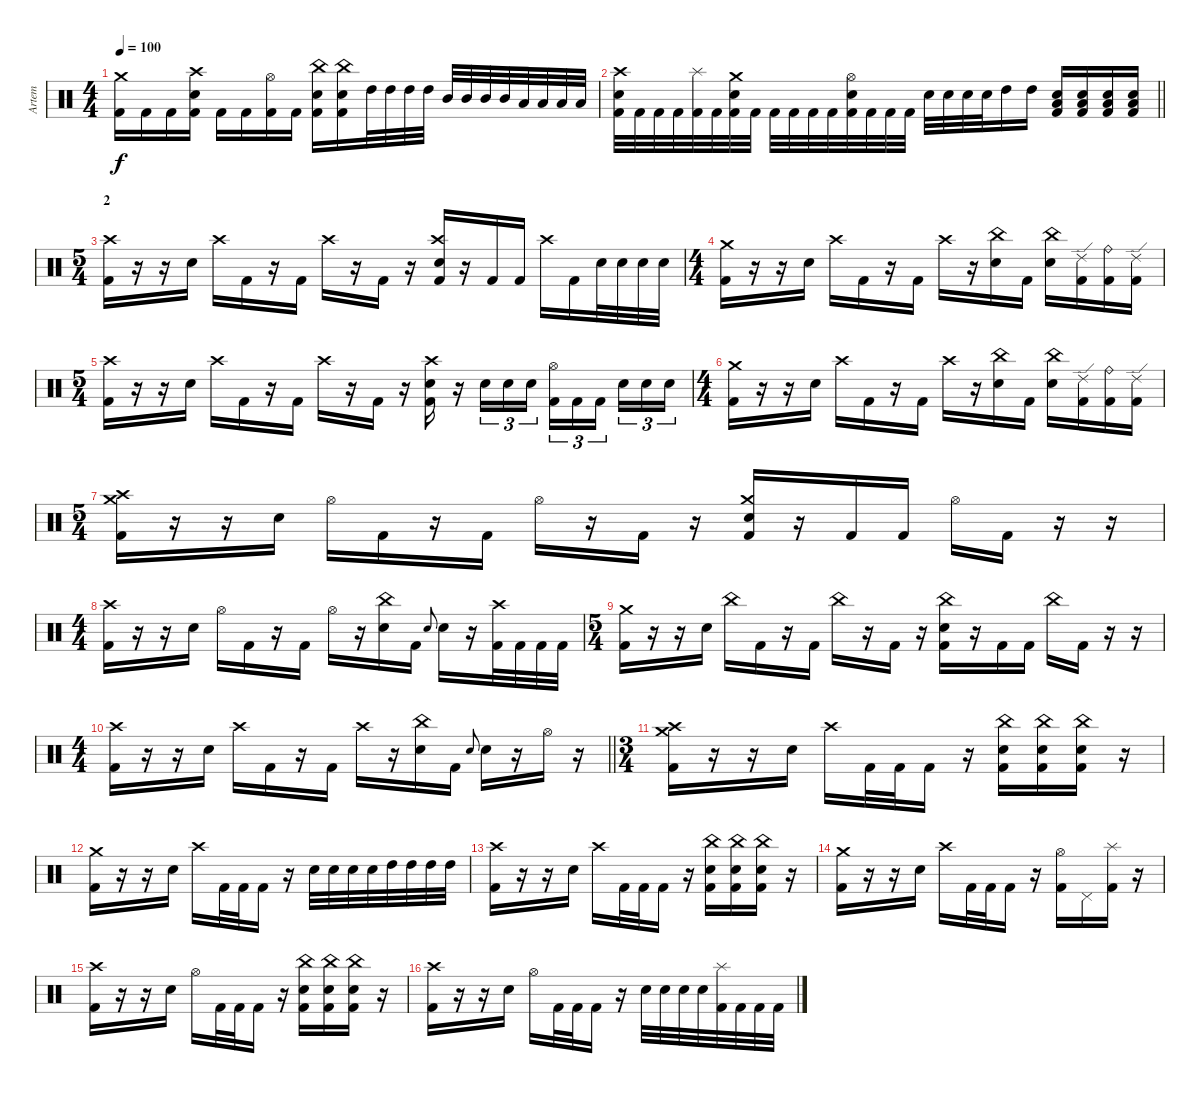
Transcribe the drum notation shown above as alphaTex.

\track ("Artem" "Artem") {instrument percussion}
\staff {score}
\articulation defaults
\ts (4 4)
\tempo 100
\clef neutral
\ks c
("Kick (hit) 2" "Crash medium (hit)").16{dy f} "Kick (hit) 2".16 "Kick (hit) 2".16 ("Kick (hit) 2" "Electric Snare (hit)" "Crash high (hit)").16 "Kick (hit) 2".16 "Kick (hit) 2".16 ("Kick (hit) 2" "Hi-Hat (open)").16 "Kick (hit) 2".16 ("Kick (hit) 2" "Electric Snare (hit)" "China (hit)").16 ("Kick (hit) 2" "Electric Snare (hit)" "China (hit)").16 "High Tom (hit)".32 "High Tom (hit)".32 "High Tom (hit)".32 "High Tom (hit)".32 "Mid Tom (hit)".32 "Mid Tom (hit)".32 "Mid Tom (hit)".32 "Mid Tom (hit)".32 "Low Floor Tom (hit)".32 "Low Floor Tom (hit)".32 "Low Floor Tom (hit)".32 "Low Floor Tom (hit)".32 |
\barLineRight lightlight
("Kick (hit) 2" "Electric Snare (hit)" "Crash high (hit)").32 "Kick (hit) 2".32 "Kick (hit) 2".32 "Kick (hit) 2".32 ("Kick (hit) 2" "Splash (hit)").32 "Kick (hit) 2".32 ("Kick (hit) 2" "Electric Snare (hit)" "Crash medium (hit)").32 "Kick (hit) 2".32 "Kick (hit) 2".32 "Kick (hit) 2".32 "Kick (hit) 2".32 "Kick (hit) 2".32 ("Kick (hit) 2" "Electric Snare (hit)" "Hi-Hat (open)").32 "Kick (hit) 2".32 "Kick (hit) 2".32 "Kick (hit) 2".32 "Electric Snare (hit)".32 "Electric Snare (hit)".32 "Electric Snare (hit)".32 "Electric Snare (hit)".32 "High Tom (hit)".16 "High Tom (hit)".16 ("Kick (hit) 2" "Electric Snare (hit)" "Low Floor Tom (hit)").16 ("Kick (hit) 2" "Electric Snare (hit)" "Low Floor Tom (hit)").16 ("Kick (hit) 2" "Electric Snare (hit)" "Low Floor Tom (hit)").16 ("Kick (hit) 2" "Electric Snare (hit)" "Low Floor Tom (hit)").16 |
\ts (5 4)
\section ("" "2")
("Crash high (hit)" "Kick (hit) 2").16 r.16 r.16 "Electric Snare (hit)".16 "Crash high (hit)".16 "Kick (hit) 2".16 r.16 "Kick (hit) 2".16 "Crash high (hit)".16 r.16 "Kick (hit) 2".16 r.16 ("Crash high (hit)" "Kick (hit) 2" "Snare (hit) 2").16 r.16 "Kick (hit) 2".16 "Kick (hit) 2".16 "Crash high (hit)".16 "Kick (hit) 2".16 "Electric Snare (hit)".32 "Electric Snare (hit)".32 "Electric Snare (hit)".32 "Electric Snare (hit)".32 |
\ts (4 4)
("Crash medium (hit)" "Kick (hit) 2").16 r.16 r.16 "Electric Snare (hit)".16 "Crash high (hit)".16 "Kick (hit) 2".16 r.16 "Kick (hit) 2".16 "Crash high (hit)".16 r.16 ("Electric Snare (hit)" "China (hit)").16 "Kick (hit) 2".16 ("China (hit)" "Electric Snare (hit)").16 ("Kick (hit) 2" "Ride (edge) 2").16 ("Kick (hit) 2" "Ride (bell)").16 ("Kick (hit) 2" "Ride (edge) 2").16 |
\ts (5 4)
("Crash high (hit)" "Kick (hit) 2").16 r.16 r.16 "Electric Snare (hit)".16 "Crash high (hit)".16 "Kick (hit) 2".16 r.16 "Kick (hit) 2".16 "Crash high (hit)".16 r.16 "Kick (hit) 2".16 r.16 ("Crash high (hit)" "Kick (hit) 2" "Electric Snare (hit)").16 r.16 "Electric Snare (hit)".16{tu (3 2)} "Electric Snare (hit)".16{tu (3 2)} "Electric Snare (hit)".16{tu (3 2)} ("Kick (hit) 2" "Hi-Hat (open)").16{tu (3 2)} "Kick (hit) 2".16{tu (3 2)} "Kick (hit) 2".16{tu (3 2) beam splitsecondary} "Electric Snare (hit)".16{tu (3 2)} "Electric Snare (hit)".16{tu (3 2)} "Electric Snare (hit)".16{tu (3 2)} |
\ts (4 4)
("Crash medium (hit)" "Kick (hit) 2").16 r.16 r.16 "Electric Snare (hit)".16 "Crash high (hit)".16 "Kick (hit) 2".16 r.16 "Kick (hit) 2".16 "Crash high (hit)".16 r.16 ("Electric Snare (hit)" "China (hit)").16 "Kick (hit) 2".16 ("China (hit)" "Electric Snare (hit)").16 ("Kick (hit) 2" "Ride (edge) 2").16 ("Kick (hit) 2" "Ride (bell)").16 ("Kick (hit) 2" "Ride (edge) 2").16 |
\ts (5 4)
("Crash high (hit)" "Kick (hit) 2" "Crash medium (hit)").16 r.16 r.16 "Electric Snare (hit)".16 "Hi-Hat (open)".16 "Kick (hit) 2".16 r.16 "Kick (hit) 2".16 "Hi-Hat (open)".16 r.16 "Kick (hit) 2".16 r.16 ("Crash medium (hit)" "Kick (hit) 2" "Electric Snare (hit)").16 r.16 "Kick (hit) 2".16 "Kick (hit) 2".16 "Hi-Hat (open)".16 "Kick (hit) 2".16 r.16 r.16 |
\ts (4 4)
("Crash high (hit)" "Kick (hit) 2").16 r.16 r.16 "Electric Snare (hit)".16 "Hi-Hat (open)".16 "Kick (hit) 2".16 r.16 "Kick (hit) 2".16 "Hi-Hat (open)".16 r.16 ("Electric Snare (hit)" "China (hit)").16 "Kick (hit) 2".16 "Electric Snare (hit)".8{gr onbeat} "Electric Snare (hit)".16 r.16 ("Kick (hit) 2" "Crash high (hit)").32 "Kick (hit) 2".32 "Kick (hit) 2".32 "Kick (hit) 2".32 |
\ts (5 4)
("Crash medium (hit)" "Kick (hit) 2").16 r.16 r.16 "Electric Snare (hit)".16 "China (hit)".16 "Kick (hit) 2".16 r.16 "Kick (hit) 2".16 "China (hit)".16 r.16 "Kick (hit) 2".16 r.16 ("China (hit)" "Kick (hit) 2" "Electric Snare (hit)").16 r.16 "Kick (hit) 2".16 "Kick (hit) 2".16 "China (hit)".16 "Kick (hit) 2".16 r.16 r.16 |
\ts (4 4)
\barLineRight lightlight
("Crash high (hit)" "Kick (hit) 2").16 r.16 r.16 "Electric Snare (hit)".16 "Crash high (hit)".16 "Kick (hit) 2".16 r.16 "Kick (hit) 2".16 "Crash high (hit)".16 r.16 ("Electric Snare (hit)" "China (hit)").16 "Kick (hit) 2".16 "Electric Snare (hit)".8{gr onbeat} "Electric Snare (hit)".16 r.16 "Hi-Hat (open)".16 r.16 |
\ts (3 4)
\section ("" "")
("Kick (hit) 2" "Crash high (hit)" "Crash medium (hit)").16 r.16 r.16 "Electric Snare (hit)".16 "Crash high (hit)".16 "Kick (hit) 2".32 "Kick (hit) 2".32 "Kick (hit) 2".16 r.16 ("Kick (hit) 2" "China (hit)" "Electric Snare (hit)").16 ("Kick (hit) 2" "Electric Snare (hit)" "China (hit)").16 ("Kick (hit) 2" "Electric Snare (hit)" "China (hit)").16 r.16 |
("Kick (hit) 2" "Crash medium (hit)").16 r.16 r.16 "Electric Snare (hit)".16 "Crash high (hit)".16 "Kick (hit) 2".32 "Kick (hit) 2".32 "Kick (hit) 2".16 r.16 "Electric Snare (hit)".32 "Electric Snare (hit)".32 "Electric Snare (hit)".32 "Electric Snare (hit)".32 "High Tom (hit)".32 "High Tom (hit)".32 "High Tom (hit)".32 "High Tom (hit)".32 |
("Kick (hit) 2" "Crash high (hit)").16 r.16 r.16 "Electric Snare (hit)".16 "Crash high (hit)".16 "Kick (hit) 2".32 "Kick (hit) 2".32 "Kick (hit) 2".16 r.16 ("Kick (hit) 2" "China (hit)" "Electric Snare (hit)").16 ("Kick (hit) 2" "Electric Snare (hit)" "China (hit)").16 ("Kick (hit) 2" "Electric Snare (hit)" "China (hit)").16 r.16 |
("Kick (hit) 2" "Crash medium (hit)").16 r.16 r.16 "Electric Snare (hit)".16 "Crash high (hit)".16 "Kick (hit) 2".32 "Kick (hit) 2".32 "Kick (hit) 2".16 r.16 ("Kick (hit) 2" "Hi-Hat (open)").16 "Pedal Hi-Hat (hit)".16 ("Kick (hit) 2" "Splash (hit)").16 r.16 |
("Kick (hit) 2" "Crash high (hit)").16 r.16 r.16 "Electric Snare (hit)".16 "Hi-Hat (open)".16 "Kick (hit) 2".32 "Kick (hit) 2".32 "Kick (hit) 2".16 r.16 ("Kick (hit) 2" "China (hit)" "Electric Snare (hit)").16 ("Kick (hit) 2" "Electric Snare (hit)" "China (hit)").16 ("Kick (hit) 2" "Electric Snare (hit)" "China (hit)").16 r.16 |
("Kick (hit) 2" "Crash high (hit)").16 r.16 r.16 "Electric Snare (hit)".16 "Hi-Hat (open)".16 "Kick (hit) 2".32 "Kick (hit) 2".32 "Kick (hit) 2".16 r.16 "Electric Snare (hit)".32 "Electric Snare (hit)".32 "Electric Snare (hit)".32 "Electric Snare (hit)".32 ("Kick (hit) 2" "Splash (hit)").32 "Kick (hit) 2".32 "Kick (hit) 2".32 "Kick (hit) 2".32
